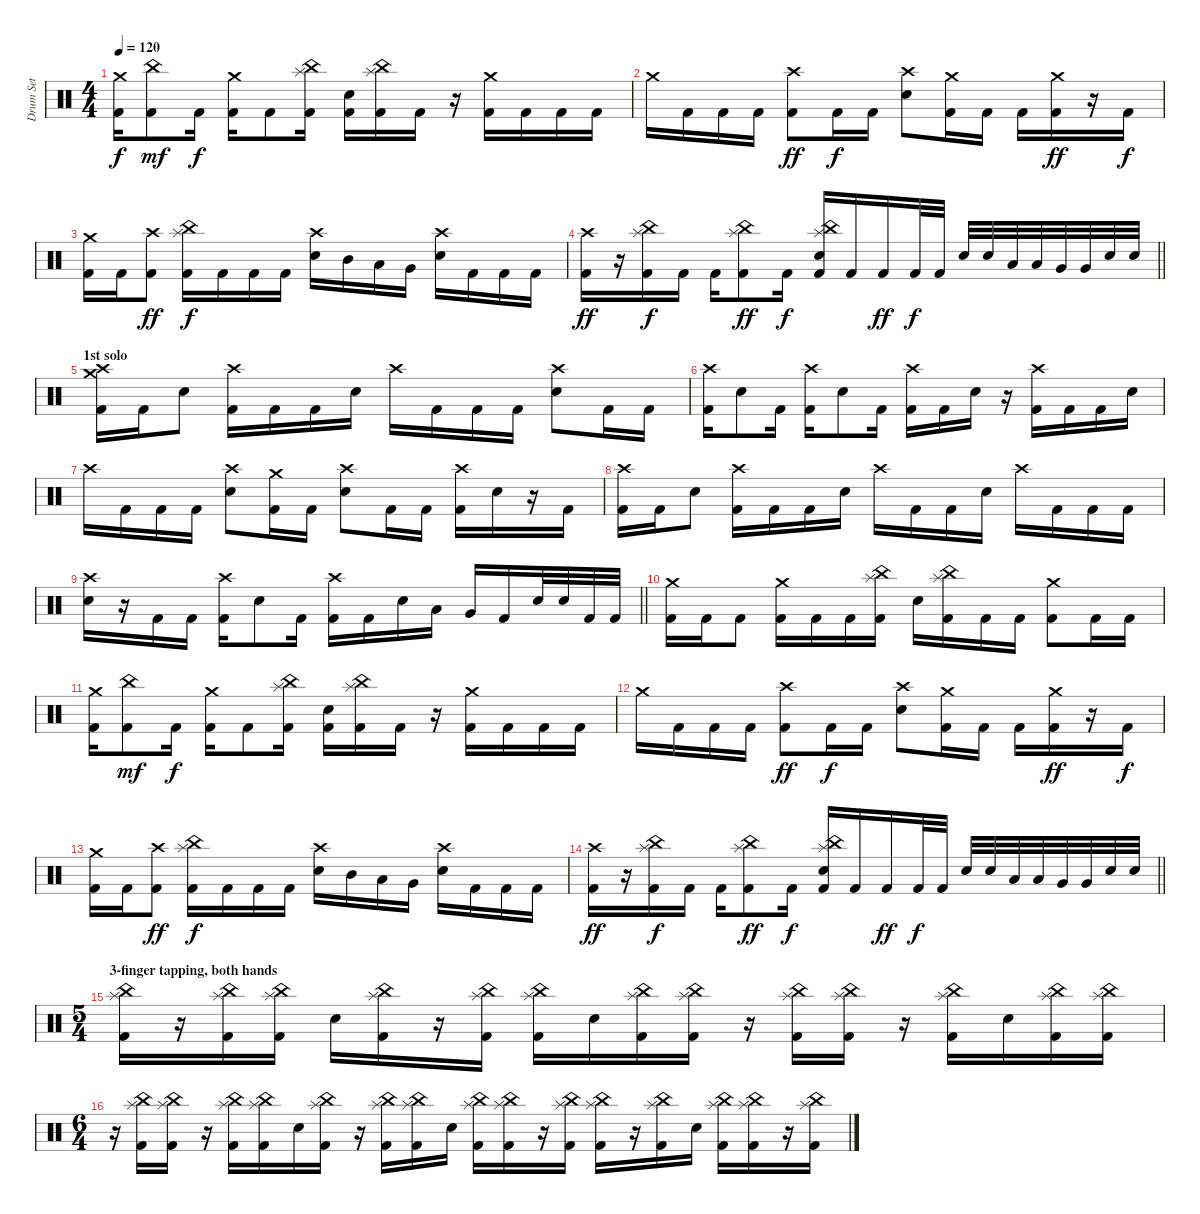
\track ("Drum Set" "Drum Set") {instrument percussion}
\staff {score}
\articulation defaults
\ts (4 4)
\tempo 120
\clef neutral
\ks c
("Crash medium (hit)" "Kick (hit) 2").16{dy f} ("China (hit)" "Kick (hit) 2").8{dy mf} "Kick (hit) 2".16{dy f} ("Crash medium (hit)" "Kick (hit) 2").16 "Kick (hit) 2".8 ("China (hit)" "Splash (hit)" "Kick (hit) 2").16 ("Electric Snare (hit)" "Kick (hit) 2").16 ("China (hit)" "Splash (hit)" "Kick (hit) 2").16 "Kick (hit) 2".16 r.16 ("Crash medium (hit)" "Kick (hit) 2").16 "Kick (hit) 2".16 "Kick (hit) 2".16 "Kick (hit) 2".16 |
"Crash medium (hit)".16 "Kick (hit) 2".16 "Kick (hit) 2".16 "Kick (hit) 2".16 ("Crash high (hit)" "Kick (hit) 2").8{dy ff} "Kick (hit) 2".16{dy f} "Kick (hit) 2".16 ("Crash high (hit)" "Electric Snare (hit)").8 ("Crash medium (hit)" "Kick (hit) 2").16 "Kick (hit) 2".16 "Kick (hit) 2".16 ("Crash medium (hit)" "Kick (hit) 2").16{dy ff} r.16 "Kick (hit) 2".16{dy f} |
("Crash medium (hit)" "Kick (hit) 2").16 "Kick (hit) 2".16 ("Crash high (hit)" "Kick (hit) 2").8{dy ff} ("China (hit)" "Splash (hit)" "Kick (hit) 2").16{dy f} "Kick (hit) 2".16 "Kick (hit) 2".16 "Kick (hit) 2".16 ("Crash high (hit)" "Electric Snare (hit)").16 "Mid Tom (hit)".16 "Low Tom (hit)".16 "Very Low Tom (hit)".16 ("Crash high (hit)" "Electric Snare (hit)").16 "Kick (hit) 2".16 "Kick (hit) 2".16 "Kick (hit) 2".16 |
\barLineRight lightlight
("Crash high (hit)" "Kick (hit) 2").16{dy ff} r.16 ("Splash (hit)" "China (hit)" "Kick (hit) 2").16{dy f} "Kick (hit) 2".16 "Kick (hit) 2".16 ("Splash (hit)" "China (hit)" "Kick (hit) 2").8{dy ff} "Kick (hit) 2".16{dy f} ("Splash (hit)" "China (hit)" "Electric Snare (hit)" "Kick (hit) 2").16 "Kick (hit) 2".16 "Kick (hit) 2".16{dy ff} "Kick (hit) 2".32{dy f} "Kick (hit) 2".32 "Electric Snare (hit)".32 "Electric Snare (hit)".32 "Low Tom (hit)".32 "Low Tom (hit)".32 "Very Low Tom (hit)".32 "Very Low Tom (hit)".32 "Electric Snare (hit)".32 "Electric Snare (hit)".32 |
\section ("" "1st solo")
("Crash medium (hit)" "Crash high (hit)" "Kick (hit) 2").16 "Kick (hit) 2".16 "Electric Snare (hit)".8 ("Crash high (hit)" "Kick (hit) 2").16 "Kick (hit) 2".16 "Kick (hit) 2".16 "Electric Snare (hit)".16 "Crash high (hit)".16 "Kick (hit) 2".16 "Kick (hit) 2".16 "Kick (hit) 2".16 ("Crash high (hit)" "Electric Snare (hit)").8 "Kick (hit) 2".16 "Kick (hit) 2".16 |
("Crash high (hit)" "Kick (hit) 2").16 "Electric Snare (hit)".8 "Kick (hit) 2".16 ("Crash high (hit)" "Kick (hit) 2").16 "Electric Snare (hit)".8 "Kick (hit) 2".16 ("Crash high (hit)" "Kick (hit) 2").16 "Kick (hit) 2".16 "Electric Snare (hit)".16 r.16 ("Crash high (hit)" "Kick (hit) 2").16 "Kick (hit) 2".16 "Kick (hit) 2".16 "Electric Snare (hit)".16 |
"Crash high (hit)".16 "Kick (hit) 2".16 "Kick (hit) 2".16 "Kick (hit) 2".16 ("Crash high (hit)" "Electric Snare (hit)").8 ("Crash medium (hit)" "Kick (hit) 2").16 "Kick (hit) 2".16 ("Crash high (hit)" "Electric Snare (hit)").8 "Kick (hit) 2".16 "Kick (hit) 2".16 ("Crash high (hit)" "Kick (hit) 2").16 "Electric Snare (hit)".16 r.16 "Kick (hit) 2".16 |
("Crash high (hit)" "Kick (hit) 2").16 "Kick (hit) 2".16 "Electric Snare (hit)".8 ("Crash high (hit)" "Kick (hit) 2").16 "Kick (hit) 2".16 "Kick (hit) 2".16 "Electric Snare (hit)".16 "Crash high (hit)".16 "Kick (hit) 2".16 "Kick (hit) 2".16 "Electric Snare (hit)".16 "Crash high (hit)".16 "Kick (hit) 2".16 "Kick (hit) 2".16 "Kick (hit) 2".16 |
\barLineRight lightlight
("Crash high (hit)" "Electric Snare (hit)").16 r.16 "Kick (hit) 2".16 "Kick (hit) 2".16 ("Crash high (hit)" "Kick (hit) 2").16 "Electric Snare (hit)".8 "Kick (hit) 2".16 ("Crash high (hit)" "Kick (hit) 2").16 "Kick (hit) 2".16 "Electric Snare (hit)".16 "Low Tom (hit)".16 "Very Low Tom (hit)".16 "Kick (hit) 2".16 "Electric Snare (hit)".32 "Electric Snare (hit)".32 "Kick (hit) 2".32 "Kick (hit) 2".32 |
("Crash medium (hit)" "Kick (hit) 2").16 "Kick (hit) 2".16 "Kick (hit) 2".8 ("Crash medium (hit)" "Kick (hit) 2").16 "Kick (hit) 2".16 "Kick (hit) 2".16 ("China (hit)" "Splash (hit)" "Kick (hit) 2").16 "Electric Snare (hit)".16 ("China (hit)" "Splash (hit)" "Kick (hit) 2").16 "Kick (hit) 2".16 "Kick (hit) 2".16 ("Crash medium (hit)" "Kick (hit) 2").8 "Kick (hit) 2".16 "Kick (hit) 2".16 |
("Crash medium (hit)" "Kick (hit) 2").16 ("China (hit)" "Kick (hit) 2").8{dy mf} "Kick (hit) 2".16{dy f} ("Crash medium (hit)" "Kick (hit) 2").16 "Kick (hit) 2".8 ("China (hit)" "Splash (hit)" "Kick (hit) 2").16 ("Electric Snare (hit)" "Kick (hit) 2").16 ("China (hit)" "Splash (hit)" "Kick (hit) 2").16 "Kick (hit) 2".16 r.16 ("Crash medium (hit)" "Kick (hit) 2").16 "Kick (hit) 2".16 "Kick (hit) 2".16 "Kick (hit) 2".16 |
"Crash medium (hit)".16 "Kick (hit) 2".16 "Kick (hit) 2".16 "Kick (hit) 2".16 ("Crash high (hit)" "Kick (hit) 2").8{dy ff} "Kick (hit) 2".16{dy f} "Kick (hit) 2".16 ("Crash high (hit)" "Electric Snare (hit)").8 ("Crash medium (hit)" "Kick (hit) 2").16 "Kick (hit) 2".16 "Kick (hit) 2".16 ("Crash medium (hit)" "Kick (hit) 2").16{dy ff} r.16 "Kick (hit) 2".16{dy f} |
("Crash medium (hit)" "Kick (hit) 2").16 "Kick (hit) 2".16 ("Crash high (hit)" "Kick (hit) 2").8{dy ff} ("China (hit)" "Splash (hit)" "Kick (hit) 2").16{dy f} "Kick (hit) 2".16 "Kick (hit) 2".16 "Kick (hit) 2".16 ("Crash high (hit)" "Electric Snare (hit)").16 "Mid Tom (hit)".16 "Low Tom (hit)".16 "Very Low Tom (hit)".16 ("Crash high (hit)" "Electric Snare (hit)").16 "Kick (hit) 2".16 "Kick (hit) 2".16 "Kick (hit) 2".16 |
\barLineRight lightlight
("Crash high (hit)" "Kick (hit) 2").16{dy ff} r.16 ("Splash (hit)" "China (hit)" "Kick (hit) 2").16{dy f} "Kick (hit) 2".16 "Kick (hit) 2".16 ("Splash (hit)" "China (hit)" "Kick (hit) 2").8{dy ff} "Kick (hit) 2".16{dy f} ("Splash (hit)" "China (hit)" "Electric Snare (hit)" "Kick (hit) 2").16 "Kick (hit) 2".16 "Kick (hit) 2".16{dy ff} "Kick (hit) 2".32{dy f} "Kick (hit) 2".32 "Electric Snare (hit)".32 "Electric Snare (hit)".32 "Low Tom (hit)".32 "Low Tom (hit)".32 "Very Low Tom (hit)".32 "Very Low Tom (hit)".32 "Electric Snare (hit)".32 "Electric Snare (hit)".32 |
\ts (5 4)
\section ("" "3-finger tapping, both hands")
("China (hit)" "Splash (hit)" "Kick (hit) 2").16 r.16 ("China (hit)" "Splash (hit)" "Kick (hit) 2").16 ("China (hit)" "Splash (hit)" "Kick (hit) 2").16 "Electric Snare (hit)".16 ("China (hit)" "Splash (hit)" "Kick (hit) 2").16 r.16 ("China (hit)" "Splash (hit)" "Kick (hit) 2").16 ("China (hit)" "Splash (hit)" "Kick (hit) 2").16 "Electric Snare (hit)".16 ("China (hit)" "Splash (hit)" "Kick (hit) 2").16 ("China (hit)" "Splash (hit)" "Kick (hit) 2").16 r.16 ("China (hit)" "Splash (hit)" "Kick (hit) 2").16 ("China (hit)" "Splash (hit)" "Kick (hit) 2").16 r.16 ("China (hit)" "Splash (hit)" "Kick (hit) 2").16 "Electric Snare (hit)".16 ("China (hit)" "Splash (hit)" "Kick (hit) 2").16 ("China (hit)" "Splash (hit)" "Kick (hit) 2").16 |
\ts (6 4)
r.16 ("China (hit)" "Splash (hit)" "Kick (hit) 2").16 ("China (hit)" "Splash (hit)" "Kick (hit) 2").16 r.16 ("China (hit)" "Splash (hit)" "Kick (hit) 2").16 ("China (hit)" "Splash (hit)" "Kick (hit) 2").16 "Electric Snare (hit)".16 ("China (hit)" "Splash (hit)" "Kick (hit) 2").16 r.16 ("China (hit)" "Splash (hit)" "Kick (hit) 2").16 ("China (hit)" "Splash (hit)" "Kick (hit) 2").16 "Electric Snare (hit)".16 ("China (hit)" "Splash (hit)" "Kick (hit) 2").16 ("China (hit)" "Splash (hit)" "Kick (hit) 2").16 r.16 ("China (hit)" "Splash (hit)" "Kick (hit) 2").16 ("China (hit)" "Splash (hit)" "Kick (hit) 2").16 r.16 ("China (hit)" "Splash (hit)" "Kick (hit) 2").16 "Electric Snare (hit)".16 ("China (hit)" "Splash (hit)" "Kick (hit) 2").16 ("China (hit)" "Splash (hit)" "Kick (hit) 2").16 r.16 ("China (hit)" "Splash (hit)" "Kick (hit) 2").16
